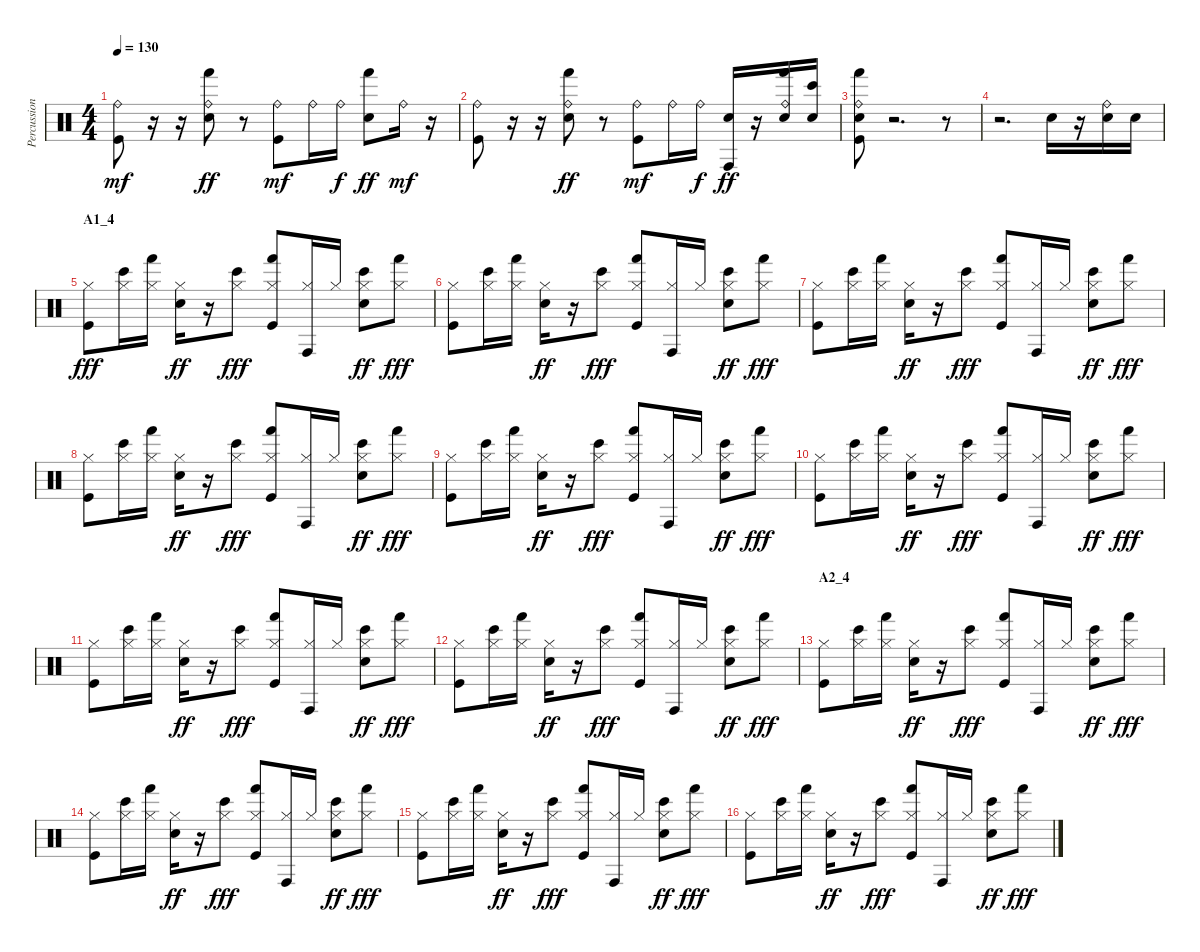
\track ("Percussion" "Percussion") {instrument percussion}
\staff {score}
\articulation defaults
\ts (4 4)
\tempo 130
\clef neutral
\ks c
("Ride (bell)" "Kick (hit)").8{dy mf} r.16 r.16 ("Ride (bell)" "Hand (hit)" "Electric Snare (hit)").8{dy ff} r.8 ("Ride (bell)" "Kick (hit)").8{dy mf} "Ride (bell)".16 "Ride (bell)".16{dy f} ("Hand (hit)" "Electric Snare (hit)").8{dy ff} "Ride (bell)".16{dy mf} r.16 |
("Ride (bell)" "Kick (hit)").8 r.16 r.16 ("Ride (bell)" "Hand (hit)" "Electric Snare (hit)").8{dy ff} r.8 ("Ride (bell)" "Kick (hit)").8{dy mf} "Ride (bell)".16 "Ride (bell)".16{dy f} ("Conga high (hit)" "Electric Snare (hit)").16{dy ff} r.16 ("Ride (bell)" "Hand (hit)" "Electric Snare (hit)").16 ("Bongo High (hit)" "Electric Snare (hit)").16 |
("Ride (bell)" "Hand (hit)" "Electric Snare (hit)" "Kick (hit)").8 r.2{d} r.8 |
r.2{d} "Electric Snare (hit)".16 r.16 ("Ride (bell)" "Electric Snare (hit)").16 "Electric Snare (hit)".16 |
\section ("" "A1_4")
("Hi-Hat (closed)" "Kick (hit)").8{dy fff} ("Hi-Hat (closed)" "Bongo High (hit)").16 ("Hi-Hat (closed)" "Hand (hit)").16 ("Hi-Hat (closed)" "Electric Snare (hit)").16{dy ff} r.16 ("Hi-Hat (closed)" "Bongo High (hit)").8{dy fff} ("Hi-Hat (closed)" "Hand (hit)" "Kick (hit)").8 ("Hi-Hat (closed)" "Conga high (hit)").16 "Hi-Hat (closed)".16 ("Hi-Hat (closed)" "Bongo High (hit)" "Electric Snare (hit)").8{dy ff} ("Hi-Hat (closed)" "Hand (hit)").8{dy fff} |
("Hi-Hat (closed)" "Kick (hit)").8 ("Hi-Hat (closed)" "Bongo High (hit)").16 ("Hi-Hat (closed)" "Hand (hit)").16 ("Hi-Hat (closed)" "Electric Snare (hit)").16{dy ff} r.16 ("Hi-Hat (closed)" "Bongo High (hit)").8{dy fff} ("Hi-Hat (closed)" "Hand (hit)" "Kick (hit)").8 ("Hi-Hat (closed)" "Conga high (hit)").16 "Hi-Hat (closed)".16 ("Hi-Hat (closed)" "Bongo High (hit)" "Electric Snare (hit)").8{dy ff} ("Hi-Hat (closed)" "Hand (hit)").8{dy fff} |
("Hi-Hat (closed)" "Kick (hit)").8 ("Hi-Hat (closed)" "Bongo High (hit)").16 ("Hi-Hat (closed)" "Hand (hit)").16 ("Hi-Hat (closed)" "Electric Snare (hit)").16{dy ff} r.16 ("Hi-Hat (closed)" "Bongo High (hit)").8{dy fff} ("Hi-Hat (closed)" "Hand (hit)" "Kick (hit)").8 ("Hi-Hat (closed)" "Conga high (hit)").16 "Hi-Hat (closed)".16 ("Hi-Hat (closed)" "Bongo High (hit)" "Electric Snare (hit)").8{dy ff} ("Hi-Hat (closed)" "Hand (hit)").8{dy fff} |
("Hi-Hat (closed)" "Kick (hit)").8 ("Hi-Hat (closed)" "Bongo High (hit)").16 ("Hi-Hat (closed)" "Hand (hit)").16 ("Hi-Hat (closed)" "Electric Snare (hit)").16{dy ff} r.16 ("Hi-Hat (closed)" "Bongo High (hit)").8{dy fff} ("Hi-Hat (closed)" "Hand (hit)" "Kick (hit)").8 ("Hi-Hat (closed)" "Conga high (hit)").16 "Hi-Hat (closed)".16 ("Hi-Hat (closed)" "Bongo High (hit)" "Electric Snare (hit)").8{dy ff} ("Hi-Hat (closed)" "Hand (hit)").8{dy fff} |
("Hi-Hat (closed)" "Kick (hit)").8 ("Hi-Hat (closed)" "Bongo High (hit)").16 ("Hi-Hat (closed)" "Hand (hit)").16 ("Hi-Hat (closed)" "Electric Snare (hit)").16{dy ff} r.16 ("Hi-Hat (closed)" "Bongo High (hit)").8{dy fff} ("Hi-Hat (closed)" "Hand (hit)" "Kick (hit)").8 ("Hi-Hat (closed)" "Conga high (hit)").16 "Hi-Hat (closed)".16 ("Hi-Hat (closed)" "Bongo High (hit)" "Electric Snare (hit)").8{dy ff} ("Hi-Hat (closed)" "Hand (hit)").8{dy fff} |
("Hi-Hat (closed)" "Kick (hit)").8 ("Hi-Hat (closed)" "Bongo High (hit)").16 ("Hi-Hat (closed)" "Hand (hit)").16 ("Hi-Hat (closed)" "Electric Snare (hit)").16{dy ff} r.16 ("Hi-Hat (closed)" "Bongo High (hit)").8{dy fff} ("Hi-Hat (closed)" "Hand (hit)" "Kick (hit)").8 ("Hi-Hat (closed)" "Conga high (hit)").16 "Hi-Hat (closed)".16 ("Hi-Hat (closed)" "Bongo High (hit)" "Electric Snare (hit)").8{dy ff} ("Hi-Hat (closed)" "Hand (hit)").8{dy fff} |
("Hi-Hat (closed)" "Kick (hit)").8 ("Hi-Hat (closed)" "Bongo High (hit)").16 ("Hi-Hat (closed)" "Hand (hit)").16 ("Hi-Hat (closed)" "Electric Snare (hit)").16{dy ff} r.16 ("Hi-Hat (closed)" "Bongo High (hit)").8{dy fff} ("Hi-Hat (closed)" "Hand (hit)" "Kick (hit)").8 ("Hi-Hat (closed)" "Conga high (hit)").16 "Hi-Hat (closed)".16 ("Hi-Hat (closed)" "Bongo High (hit)" "Electric Snare (hit)").8{dy ff} ("Hi-Hat (closed)" "Hand (hit)").8{dy fff} |
("Hi-Hat (closed)" "Kick (hit)").8 ("Hi-Hat (closed)" "Bongo High (hit)").16 ("Hi-Hat (closed)" "Hand (hit)").16 ("Hi-Hat (closed)" "Electric Snare (hit)").16{dy ff} r.16 ("Hi-Hat (closed)" "Bongo High (hit)").8{dy fff} ("Hi-Hat (closed)" "Hand (hit)" "Kick (hit)").8 ("Hi-Hat (closed)" "Conga high (hit)").16 "Hi-Hat (closed)".16 ("Hi-Hat (closed)" "Bongo High (hit)" "Electric Snare (hit)").8{dy ff} ("Hi-Hat (closed)" "Hand (hit)").8{dy fff} |
\section ("" "A2_4")
("Hi-Hat (closed)" "Kick (hit)").8 ("Hi-Hat (closed)" "Bongo High (hit)").16 ("Hi-Hat (closed)" "Hand (hit)").16 ("Hi-Hat (closed)" "Electric Snare (hit)").16{dy ff} r.16 ("Hi-Hat (closed)" "Bongo High (hit)").8{dy fff} ("Hi-Hat (closed)" "Hand (hit)" "Kick (hit)").8 ("Hi-Hat (closed)" "Conga high (hit)").16 "Hi-Hat (closed)".16 ("Hi-Hat (closed)" "Bongo High (hit)" "Electric Snare (hit)").8{dy ff} ("Hi-Hat (closed)" "Hand (hit)").8{dy fff} |
("Hi-Hat (closed)" "Kick (hit)").8 ("Hi-Hat (closed)" "Bongo High (hit)").16 ("Hi-Hat (closed)" "Hand (hit)").16 ("Hi-Hat (closed)" "Electric Snare (hit)").16{dy ff} r.16 ("Hi-Hat (closed)" "Bongo High (hit)").8{dy fff} ("Hi-Hat (closed)" "Hand (hit)" "Kick (hit)").8 ("Hi-Hat (closed)" "Conga high (hit)").16 "Hi-Hat (closed)".16 ("Hi-Hat (closed)" "Bongo High (hit)" "Electric Snare (hit)").8{dy ff} ("Hi-Hat (closed)" "Hand (hit)").8{dy fff} |
("Hi-Hat (closed)" "Kick (hit)").8 ("Hi-Hat (closed)" "Bongo High (hit)").16 ("Hi-Hat (closed)" "Hand (hit)").16 ("Hi-Hat (closed)" "Electric Snare (hit)").16{dy ff} r.16 ("Hi-Hat (closed)" "Bongo High (hit)").8{dy fff} ("Hi-Hat (closed)" "Hand (hit)" "Kick (hit)").8 ("Hi-Hat (closed)" "Conga high (hit)").16 "Hi-Hat (closed)".16 ("Hi-Hat (closed)" "Bongo High (hit)" "Electric Snare (hit)").8{dy ff} ("Hi-Hat (closed)" "Hand (hit)").8{dy fff} |
("Hi-Hat (closed)" "Kick (hit)").8 ("Hi-Hat (closed)" "Bongo High (hit)").16 ("Hi-Hat (closed)" "Hand (hit)").16 ("Hi-Hat (closed)" "Electric Snare (hit)").16{dy ff} r.16 ("Hi-Hat (closed)" "Bongo High (hit)").8{dy fff} ("Hi-Hat (closed)" "Hand (hit)" "Kick (hit)").8 ("Hi-Hat (closed)" "Conga high (hit)").16 "Hi-Hat (closed)".16 ("Hi-Hat (closed)" "Bongo High (hit)" "Electric Snare (hit)").8{dy ff} ("Hi-Hat (closed)" "Hand (hit)").8{dy fff}
